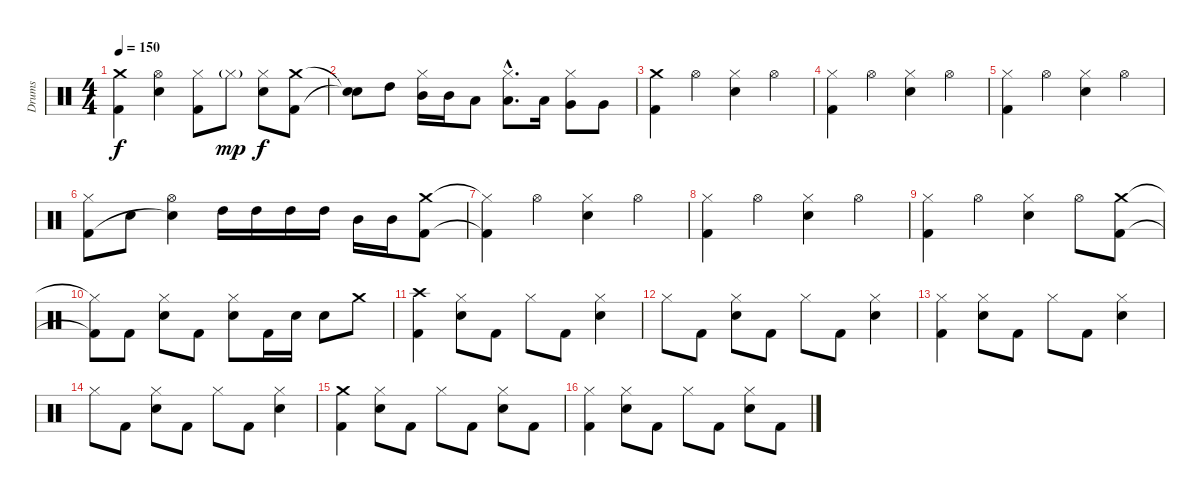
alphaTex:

\track ("Drums" "Drums") {instrument percussion}
\staff {score}
\articulation defaults
\ts (4 4)
\tempo 150
\clef neutral
\ks c
("Crash medium (hit)" "Kick (hit) 2").4{dy f} ("Hi-Hat (open)" "Electric Snare (hit)").4 ("Hi-Hat (closed)" "Kick (hit) 2").8 "Hi-Hat (closed)"{g}.8{dy mp} ("Hi-Hat (closed)" "Electric Snare (hit)").8{dy f} ("Crash medium (hit)" "Kick (hit) 2").8 |
("Snare (hit)"{t} "Snare (hit)"{t}).8 "High Tom (hit)".8 ("Mid Tom (hit)" "Hi-Hat (closed)").16 "Mid Tom (hit)".16 "Low Tom (hit)".8 ("Low Tom (hit)"{hac} "Hi-Hat (closed)"{hac}).8{d} "Low Tom (hit)".16 ("Very Low Tom (hit)" "Hi-Hat (closed)").8 "Very Low Tom (hit)".8 |
("Crash medium (hit)" "Kick (hit) 2").4 "Hi-Hat (open)".4 ("Hi-Hat (closed)" "Electric Snare (hit)").4 "Hi-Hat (open)".4 |
("Hi-Hat (closed)" "Kick (hit) 2").4 "Hi-Hat (open)".4 ("Hi-Hat (closed)" "Electric Snare (hit)").4 "Hi-Hat (open)".4 |
("Hi-Hat (closed)" "Kick (hit) 2").4 "Hi-Hat (open)".4 ("Hi-Hat (closed)" "Electric Snare (hit)").4 "Hi-Hat (open)".4 |
("Hi-Hat (closed)" "Kick (hit) 2").8 "Electric Snare (hit)".8 ("Hi-Hat (open)" "Snare (hit)"{t}).4 "High Tom (hit)".16 "High Tom (hit)".16 "High Tom (hit)".16 "High Tom (hit)".16 "Mid Tom (hit)".16 "Mid Tom (hit)".16 ("Crash medium (hit)" "Kick (hit) 2").8 |
("Hi-Hat (closed)"{t} "Kick (hit) 2"{t}).4 "Hi-Hat (open)".4 ("Hi-Hat (closed)" "Electric Snare (hit)").4 "Hi-Hat (open)".4 |
("Hi-Hat (closed)" "Kick (hit) 2").4 "Hi-Hat (open)".4 ("Hi-Hat (closed)" "Electric Snare (hit)").4 "Hi-Hat (open)".4 |
("Hi-Hat (closed)" "Kick (hit) 2").4 "Hi-Hat (open)".4 ("Hi-Hat (closed)" "Electric Snare (hit)").4 "Hi-Hat (open)".8 ("Crash medium (hit)" "Kick (hit) 2").8 |
("Hi-Hat (closed)"{t} "Kick (hit) 2"{t}).8 "Kick (hit) 2".8 ("Hi-Hat (closed)" "Electric Snare (hit)").8 "Kick (hit) 2".8 ("Hi-Hat (closed)" "Electric Snare (hit)").8 "Kick (hit) 2".16 "Electric Snare (hit)".16 "Electric Snare (hit)".8 "Crash medium (hit)".8 |
("Crash high (hit)" "Kick (hit) 2").4 ("Hi-Hat (closed)" "Electric Snare (hit)").8 "Kick (hit) 2".8 "Hi-Hat (closed)".8 "Kick (hit) 2".8 ("Hi-Hat (closed)" "Electric Snare (hit)").4 |
"Hi-Hat (closed)".8 "Kick (hit) 2".8 ("Hi-Hat (closed)" "Electric Snare (hit)").8 "Kick (hit) 2".8 "Hi-Hat (closed)".8 "Kick (hit) 2".8 ("Hi-Hat (closed)" "Electric Snare (hit)").4 |
("Hi-Hat (closed)" "Kick (hit) 2").4 ("Hi-Hat (closed)" "Electric Snare (hit)").8 "Kick (hit) 2".8 "Hi-Hat (closed)".8 "Kick (hit) 2".8 ("Hi-Hat (closed)" "Electric Snare (hit)").4 |
"Hi-Hat (closed)".8 "Kick (hit) 2".8 ("Hi-Hat (closed)" "Electric Snare (hit)").8 "Kick (hit) 2".8 "Hi-Hat (closed)".8 "Kick (hit) 2".8 ("Hi-Hat (closed)" "Electric Snare (hit)").4 |
("Crash medium (hit)" "Kick (hit) 2").4 ("Hi-Hat (closed)" "Electric Snare (hit)").8 "Kick (hit) 2".8 "Hi-Hat (closed)".8 "Kick (hit) 2".8 ("Hi-Hat (closed)" "Electric Snare (hit)").8 "Kick (hit) 2".8 |
("Hi-Hat (closed)" "Kick (hit) 2").4 ("Hi-Hat (closed)" "Electric Snare (hit)").8 "Kick (hit) 2".8 "Hi-Hat (closed)".8 "Kick (hit) 2".8 ("Hi-Hat (closed)" "Electric Snare (hit)").8 "Kick (hit) 2".8
